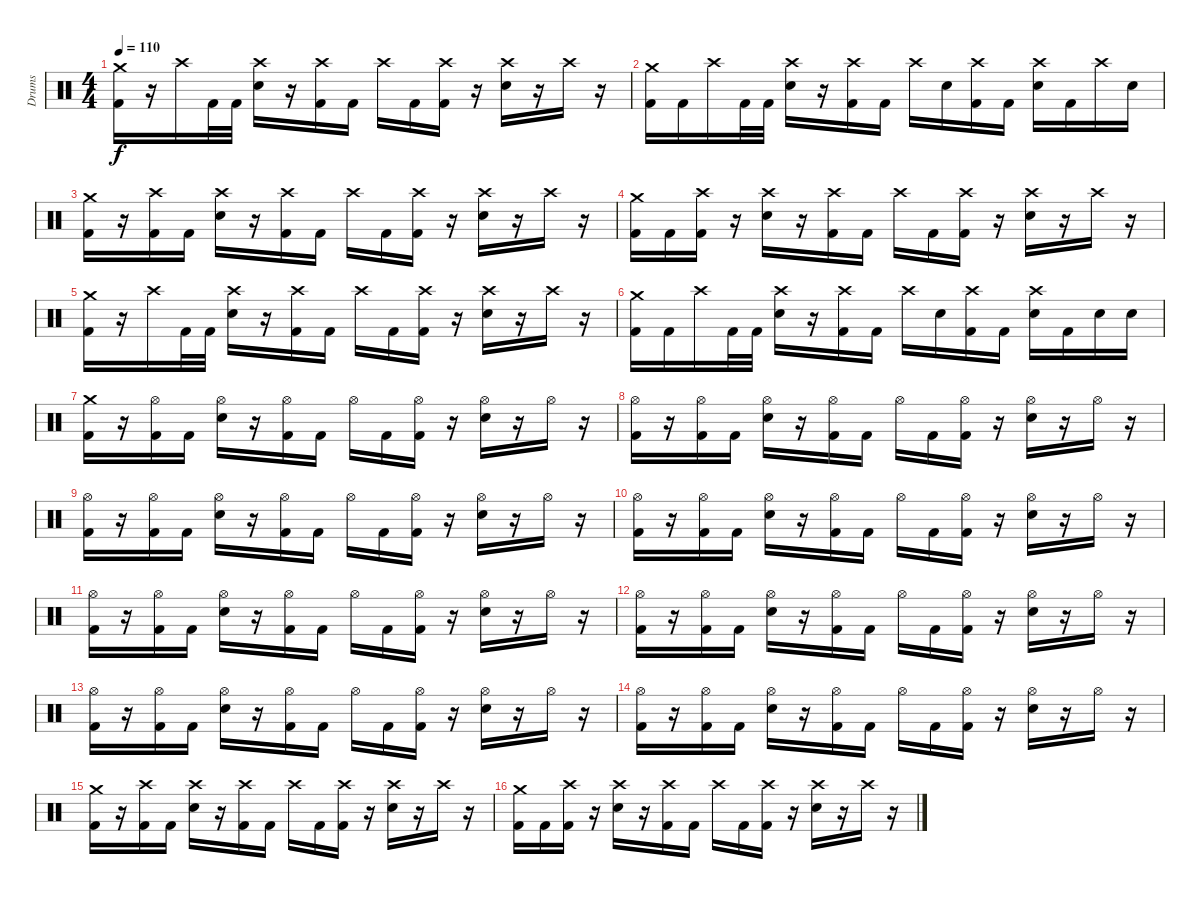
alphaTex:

\track ("Drums" "Drums") {mute instrument percussion}
\staff {score}
\articulation defaults
\ts (4 4)
\tempo 110
\clef neutral
\ks c
("Crash medium (hit)" "Kick (hit) 2").16{dy f} r.16 "Crash high (hit)".16 "Kick (hit) 2".32 "Kick (hit) 2".32 ("Crash high (hit)" "Electric Snare (hit)").16 r.16 ("Crash high (hit)" "Kick (hit) 2").16 "Kick (hit) 2".16 "Crash high (hit)".16 "Kick (hit) 2".16 ("Crash high (hit)" "Kick (hit) 2").16 r.16 ("Crash high (hit)" "Electric Snare (hit)").16 r.16 "Crash high (hit)".16 r.16 |
("Crash medium (hit)" "Kick (hit) 2").16 "Kick (hit) 2".16 "Crash high (hit)".16 "Kick (hit) 2".32 "Kick (hit) 2".32 ("Crash high (hit)" "Electric Snare (hit)").16 r.16 ("Crash high (hit)" "Kick (hit) 2").16 "Kick (hit) 2".16 "Crash high (hit)".16 "Electric Snare (hit)".16 ("Crash high (hit)" "Kick (hit) 2").16 "Kick (hit) 2".16 ("Crash high (hit)" "Electric Snare (hit)").16 "Kick (hit) 2".16 "Crash high (hit)".16 "Electric Snare (hit)".16 |
("Crash medium (hit)" "Kick (hit) 2").16 r.16 ("Crash high (hit)" "Kick (hit) 2").16 "Kick (hit) 2".16 ("Crash high (hit)" "Electric Snare (hit)").16 r.16 ("Crash high (hit)" "Kick (hit) 2").16 "Kick (hit) 2".16 "Crash high (hit)".16 "Kick (hit) 2".16 ("Crash high (hit)" "Kick (hit) 2").16 r.16 ("Crash high (hit)" "Electric Snare (hit)").16 r.16 "Crash high (hit)".16 r.16 |
("Crash medium (hit)" "Kick (hit) 2").16 "Kick (hit) 2".16 ("Crash high (hit)" "Kick (hit) 2").16 r.16 ("Crash high (hit)" "Electric Snare (hit)").16 r.16 ("Crash high (hit)" "Kick (hit) 2").16 "Kick (hit) 2".16 "Crash high (hit)".16 "Kick (hit) 2".16 ("Crash high (hit)" "Kick (hit) 2").16 r.16 ("Crash high (hit)" "Electric Snare (hit)").16 r.16 "Crash high (hit)".16 r.16 |
("Crash medium (hit)" "Kick (hit) 2").16 r.16 "Crash high (hit)".16 "Kick (hit) 2".32 "Kick (hit) 2".32 ("Crash high (hit)" "Electric Snare (hit)").16 r.16 ("Crash high (hit)" "Kick (hit) 2").16 "Kick (hit) 2".16 "Crash high (hit)".16 "Kick (hit) 2".16 ("Crash high (hit)" "Kick (hit) 2").16 r.16 ("Crash high (hit)" "Electric Snare (hit)").16 r.16 "Crash high (hit)".16 r.16 |
("Crash medium (hit)" "Kick (hit) 2").16 "Kick (hit) 2".16 "Crash high (hit)".16 "Kick (hit) 2".32 "Kick (hit) 2".32 ("Crash high (hit)" "Electric Snare (hit)").16 r.16 ("Crash high (hit)" "Kick (hit) 2").16 "Kick (hit) 2".16 "Crash high (hit)".16 "Electric Snare (hit)".16 ("Crash high (hit)" "Kick (hit) 2").16 "Kick (hit) 2".16 ("Crash high (hit)" "Electric Snare (hit)").16 "Kick (hit) 2".16 "Electric Snare (hit)".16 "Electric Snare (hit)".16 |
("Crash medium (hit)" "Kick (hit) 2").16 r.16 ("Hi-Hat (open)" "Kick (hit) 2").16 "Kick (hit) 2".16 ("Hi-Hat (open)" "Electric Snare (hit)").16 r.16 ("Hi-Hat (open)" "Kick (hit) 2").16 "Kick (hit) 2".16 "Hi-Hat (open)".16 "Kick (hit) 2".16 ("Hi-Hat (open)" "Kick (hit) 2").16 r.16 ("Hi-Hat (open)" "Electric Snare (hit)").16 r.16 "Hi-Hat (open)".16 r.16 |
("Hi-Hat (open)" "Kick (hit) 2").16 r.16 ("Hi-Hat (open)" "Kick (hit) 2").16 "Kick (hit) 2".16 ("Hi-Hat (open)" "Electric Snare (hit)").16 r.16 ("Hi-Hat (open)" "Kick (hit) 2").16 "Kick (hit) 2".16 "Hi-Hat (open)".16 "Kick (hit) 2".16 ("Hi-Hat (open)" "Kick (hit) 2").16 r.16 ("Hi-Hat (open)" "Electric Snare (hit)").16 r.16 "Hi-Hat (open)".16 r.16 |
("Hi-Hat (open)" "Kick (hit) 2").16 r.16 ("Hi-Hat (open)" "Kick (hit) 2").16 "Kick (hit) 2".16 ("Hi-Hat (open)" "Electric Snare (hit)").16 r.16 ("Hi-Hat (open)" "Kick (hit) 2").16 "Kick (hit) 2".16 "Hi-Hat (open)".16 "Kick (hit) 2".16 ("Hi-Hat (open)" "Kick (hit) 2").16 r.16 ("Hi-Hat (open)" "Electric Snare (hit)").16 r.16 "Hi-Hat (open)".16 r.16 |
("Hi-Hat (open)" "Kick (hit) 2").16 r.16 ("Hi-Hat (open)" "Kick (hit) 2").16 "Kick (hit) 2".16 ("Hi-Hat (open)" "Electric Snare (hit)").16 r.16 ("Hi-Hat (open)" "Kick (hit) 2").16 "Kick (hit) 2".16 "Hi-Hat (open)".16 "Kick (hit) 2".16 ("Hi-Hat (open)" "Kick (hit) 2").16 r.16 ("Hi-Hat (open)" "Electric Snare (hit)").16 r.16 "Hi-Hat (open)".16 r.16 |
("Hi-Hat (open)" "Kick (hit) 2").16 r.16 ("Hi-Hat (open)" "Kick (hit) 2").16 "Kick (hit) 2".16 ("Hi-Hat (open)" "Electric Snare (hit)").16 r.16 ("Hi-Hat (open)" "Kick (hit) 2").16 "Kick (hit) 2".16 "Hi-Hat (open)".16 "Kick (hit) 2".16 ("Hi-Hat (open)" "Kick (hit) 2").16 r.16 ("Hi-Hat (open)" "Electric Snare (hit)").16 r.16 "Hi-Hat (open)".16 r.16 |
("Hi-Hat (open)" "Kick (hit) 2").16 r.16 ("Hi-Hat (open)" "Kick (hit) 2").16 "Kick (hit) 2".16 ("Hi-Hat (open)" "Electric Snare (hit)").16 r.16 ("Hi-Hat (open)" "Kick (hit) 2").16 "Kick (hit) 2".16 "Hi-Hat (open)".16 "Kick (hit) 2".16 ("Hi-Hat (open)" "Kick (hit) 2").16 r.16 ("Hi-Hat (open)" "Electric Snare (hit)").16 r.16 "Hi-Hat (open)".16 r.16 |
("Hi-Hat (open)" "Kick (hit) 2").16 r.16 ("Hi-Hat (open)" "Kick (hit) 2").16 "Kick (hit) 2".16 ("Hi-Hat (open)" "Electric Snare (hit)").16 r.16 ("Hi-Hat (open)" "Kick (hit) 2").16 "Kick (hit) 2".16 "Hi-Hat (open)".16 "Kick (hit) 2".16 ("Hi-Hat (open)" "Kick (hit) 2").16 r.16 ("Hi-Hat (open)" "Electric Snare (hit)").16 r.16 "Hi-Hat (open)".16 r.16 |
("Hi-Hat (open)" "Kick (hit) 2").16 r.16 ("Hi-Hat (open)" "Kick (hit) 2").16 "Kick (hit) 2".16 ("Hi-Hat (open)" "Electric Snare (hit)").16 r.16 ("Hi-Hat (open)" "Kick (hit) 2").16 "Kick (hit) 2".16 "Hi-Hat (open)".16 "Kick (hit) 2".16 ("Hi-Hat (open)" "Kick (hit) 2").16 r.16 ("Hi-Hat (open)" "Electric Snare (hit)").16 r.16 "Hi-Hat (open)".16 r.16 |
("Crash medium (hit)" "Kick (hit) 2").16 r.16 ("Crash high (hit)" "Kick (hit) 2").16 "Kick (hit) 2".16 ("Crash high (hit)" "Electric Snare (hit)").16 r.16 ("Crash high (hit)" "Kick (hit) 2").16 "Kick (hit) 2".16 "Crash high (hit)".16 "Kick (hit) 2".16 ("Crash high (hit)" "Kick (hit) 2").16 r.16 ("Crash high (hit)" "Electric Snare (hit)").16 r.16 "Crash high (hit)".16 r.16 |
("Crash medium (hit)" "Kick (hit) 2").16 "Kick (hit) 2".16 ("Crash high (hit)" "Kick (hit) 2").16 r.16 ("Crash high (hit)" "Electric Snare (hit)").16 r.16 ("Crash high (hit)" "Kick (hit) 2").16 "Kick (hit) 2".16 "Crash high (hit)".16 "Kick (hit) 2".16 ("Crash high (hit)" "Kick (hit) 2").16 r.16 ("Crash high (hit)" "Electric Snare (hit)").16 r.16 "Crash high (hit)".16 r.16
